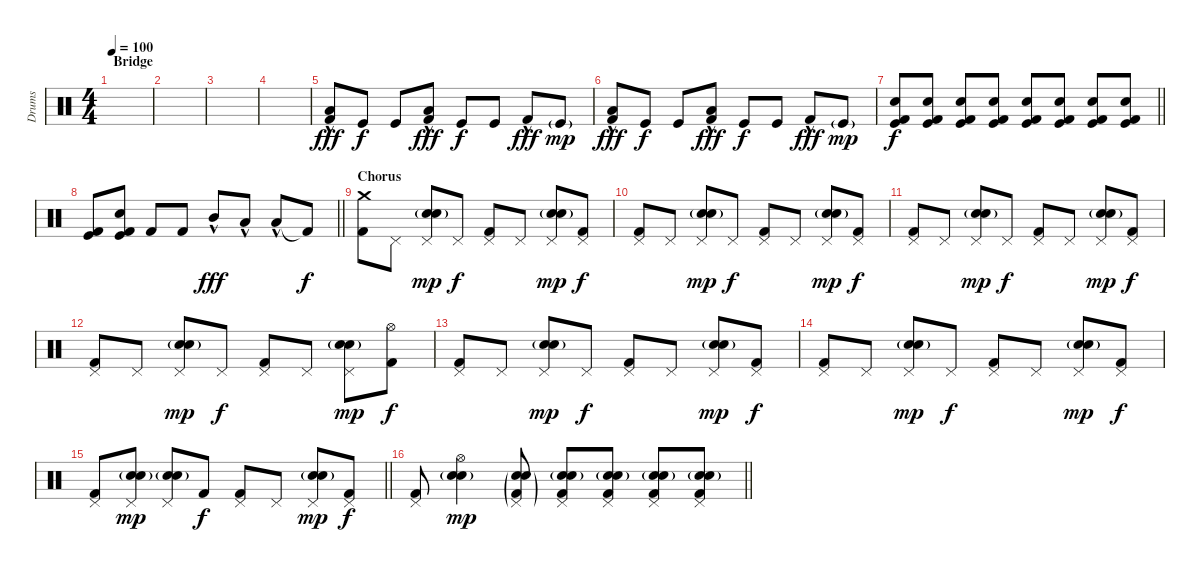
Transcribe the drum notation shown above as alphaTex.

\track ("Drums" "Drums") {instrument percussion}
\staff {score}
\articulation defaults
\ts (4 4)
\section ("" "Bridge")
\tempo 100
\clef neutral
\ks c
|
|
|
|
("Low Floor Tom (hit)" "Kick (hit) 2"{hac}).8{dy fff} "Kick (hit)".8{dy f} "Kick (hit)".8 ("Low Floor Tom (hit)" "Kick (hit) 2"{hac}).8{dy fff} "Kick (hit)".8{dy f} "Kick (hit)".8 "Kick (hit) 2"{hac}.8{dy fff} "Kick (hit)"{g}.8{dy mp} |
("Low Floor Tom (hit)" "Kick (hit) 2"{hac}).8{dy fff} "Kick (hit)".8{dy f} "Kick (hit)".8 ("Low Floor Tom (hit)" "Kick (hit) 2"{hac}).8{dy fff} "Kick (hit)".8{dy f} "Kick (hit)".8 "Kick (hit) 2"{hac}.8{dy fff} "Kick (hit)"{g}.8{dy mp} |
\barLineRight lightlight
("Snare (hit) 2" "Kick (hit) 2" "Kick (hit)").8{dy f volume 11} ("Snare (hit) 2" "Kick (hit) 2" "Kick (hit)").8 ("Snare (hit) 2" "Kick (hit) 2" "Kick (hit)").8 ("Snare (hit) 2" "Kick (hit) 2" "Kick (hit)").8 ("Snare (hit) 2" "Kick (hit) 2" "Kick (hit)").8 ("Snare (hit) 2" "Kick (hit) 2" "Kick (hit)").8 ("Snare (hit) 2" "Kick (hit) 2" "Kick (hit)").8 ("Snare (hit) 2" "Kick (hit) 2" "Kick (hit)").8 |
\barLineRight lightlight
("Kick (hit) 2" "Kick (hit)").8 ("Snare (hit) 2" "Kick (hit) 2" "Kick (hit)").8 "Kick (hit) 2".8 "Kick (hit) 2".8 "Mid Tom (hit)"{hac}.8{dy fff} "Low Tom (hit)"{hac}.8 "Low Floor Tom (hit)"{hac}.8 "Kick (hit) 2"{t}.8{dy f} |
\section ("" "Chorus")
("Crash medium (hit)" "Kick (hit) 2").8 "Pedal Hi-Hat (hit)".8 ("Pedal Hi-Hat (hit)" "Snare (hit) 2" "Electric Snare (hit)"{g}).8{dy mp} "Pedal Hi-Hat (hit)".8{dy f} ("Pedal Hi-Hat (hit)" "Kick (hit) 2").8 "Pedal Hi-Hat (hit)".8 ("Pedal Hi-Hat (hit)" "Snare (hit) 2" "Electric Snare (hit)"{g}).8{dy mp} ("Pedal Hi-Hat (hit)" "Kick (hit) 2").8{dy f} |
("Pedal Hi-Hat (hit)" "Kick (hit) 2").8 "Pedal Hi-Hat (hit)".8 ("Pedal Hi-Hat (hit)" "Snare (hit) 2" "Electric Snare (hit)"{g}).8{dy mp} "Pedal Hi-Hat (hit)".8{dy f} ("Pedal Hi-Hat (hit)" "Kick (hit) 2").8 "Pedal Hi-Hat (hit)".8 ("Pedal Hi-Hat (hit)" "Snare (hit) 2" "Electric Snare (hit)"{g}).8{dy mp} ("Pedal Hi-Hat (hit)" "Kick (hit) 2").8{dy f} |
("Pedal Hi-Hat (hit)" "Kick (hit) 2").8 "Pedal Hi-Hat (hit)".8 ("Pedal Hi-Hat (hit)" "Snare (hit) 2" "Electric Snare (hit)"{g}).8{dy mp} "Pedal Hi-Hat (hit)".8{dy f} ("Pedal Hi-Hat (hit)" "Kick (hit) 2").8 "Pedal Hi-Hat (hit)".8 ("Pedal Hi-Hat (hit)" "Snare (hit) 2" "Electric Snare (hit)"{g}).8{dy mp} ("Pedal Hi-Hat (hit)" "Kick (hit) 2").8{dy f} |
("Pedal Hi-Hat (hit)" "Kick (hit) 2").8 "Pedal Hi-Hat (hit)".8 ("Pedal Hi-Hat (hit)" "Snare (hit) 2" "Electric Snare (hit)"{g}).8{dy mp} "Pedal Hi-Hat (hit)".8{dy f} ("Pedal Hi-Hat (hit)" "Kick (hit) 2").8 "Pedal Hi-Hat (hit)".8 ("Pedal Hi-Hat (hit)" "Snare (hit) 2" "Electric Snare (hit)"{g}).8{dy mp} ("Hi-Hat (open)" "Kick (hit) 2").8{dy f} |
("Pedal Hi-Hat (hit)" "Kick (hit) 2").8 "Pedal Hi-Hat (hit)".8 ("Pedal Hi-Hat (hit)" "Snare (hit) 2" "Electric Snare (hit)"{g}).8{dy mp} "Pedal Hi-Hat (hit)".8{dy f} ("Pedal Hi-Hat (hit)" "Kick (hit) 2").8 "Pedal Hi-Hat (hit)".8 ("Pedal Hi-Hat (hit)" "Snare (hit) 2" "Electric Snare (hit)"{g}).8{dy mp} ("Pedal Hi-Hat (hit)" "Kick (hit) 2").8{dy f} |
("Pedal Hi-Hat (hit)" "Kick (hit) 2").8 "Pedal Hi-Hat (hit)".8 ("Pedal Hi-Hat (hit)" "Snare (hit) 2" "Electric Snare (hit)"{g}).8{dy mp} "Pedal Hi-Hat (hit)".8{dy f} ("Pedal Hi-Hat (hit)" "Kick (hit) 2").8 "Pedal Hi-Hat (hit)".8 ("Pedal Hi-Hat (hit)" "Snare (hit) 2" "Electric Snare (hit)"{g}).8{dy mp} ("Pedal Hi-Hat (hit)" "Kick (hit) 2").8{dy f} |
\barLineRight lightlight
("Pedal Hi-Hat (hit)" "Kick (hit) 2").8 ("Pedal Hi-Hat (hit)" "Snare (hit) 2" "Electric Snare (hit)"{g}).8{dy mp} ("Pedal Hi-Hat (hit)" "Snare (hit) 2" "Electric Snare (hit)"{g}).8 "Kick (hit) 2".8{dy f} ("Pedal Hi-Hat (hit)" "Kick (hit) 2").8 "Pedal Hi-Hat (hit)".8 ("Pedal Hi-Hat (hit)" "Snare (hit) 2" "Electric Snare (hit)"{g}).8{dy mp} ("Pedal Hi-Hat (hit)" "Kick (hit) 2").8{dy f} |
\barLineRight lightlight
("Pedal Hi-Hat (hit)" "Kick (hit) 2").8 ("Hi-Hat (open)" "Snare (hit) 2" "Electric Snare (hit)"{g}).4{dy mp} ("Pedal Hi-Hat (hit)"{g} "Snare (hit) 2"{g} "Electric Snare (hit)"{g} "Kick (hit) 2"{g}).8 ("Pedal Hi-Hat (hit)" "Snare (hit) 2" "Electric Snare (hit)"{g} "Kick (hit) 2").8 ("Pedal Hi-Hat (hit)" "Snare (hit) 2" "Electric Snare (hit)"{g} "Kick (hit) 2").8 ("Pedal Hi-Hat (hit)" "Snare (hit) 2" "Electric Snare (hit)"{g} "Kick (hit) 2").8 ("Pedal Hi-Hat (hit)" "Snare (hit) 2" "Electric Snare (hit)"{g} "Kick (hit) 2").8
